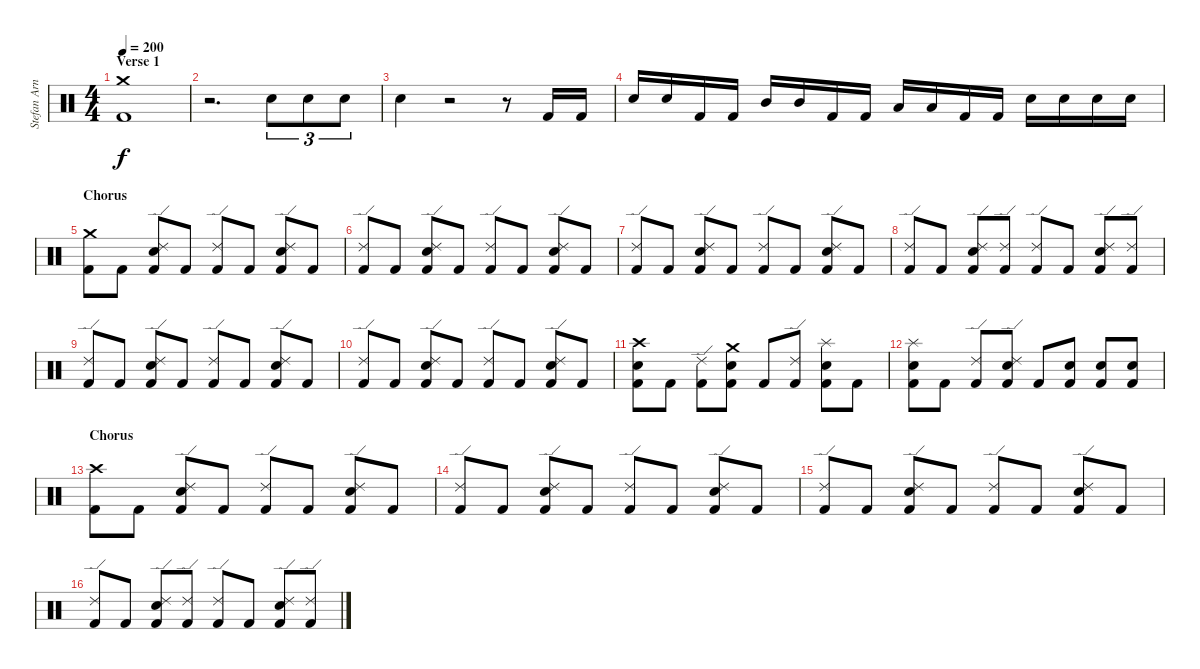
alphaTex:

\track ("Stefan Arnold" "Stefan Arn") {instrument percussion}
\staff {score}
\articulation defaults
\ts (4 4)
\section ("" "Verse 1")
\tempo 200
\clef neutral
\ks c
("Crash medium (hit)" "Kick (hit) 2").1{dy f} |
r.2{d} "Electric Snare (hit)".8{tu (3 2)} "Electric Snare (hit)".8{tu (3 2)} "Electric Snare (hit)".8{tu (3 2)} |
"Electric Snare (hit)".4 r.2 r.8 "Kick (hit) 2".16 "Kick (hit) 2".16 |
"Electric Snare (hit)".16 "Electric Snare (hit)".16 "Kick (hit) 2".16 "Kick (hit) 2".16 "Mid Tom (hit)".16 "Mid Tom (hit)".16 "Kick (hit) 2".16 "Kick (hit) 2".16 "Low Tom (hit)".16 "Low Tom (hit)".16 "Kick (hit) 2".16 "Kick (hit) 2".16 "Electric Snare (hit)".16 "Electric Snare (hit)".16 "Electric Snare (hit)".16 "Electric Snare (hit)".16 |
\section ("" "Chorus")
("Crash medium (hit)" "Kick (hit) 2").8 "Kick (hit) 2".8 ("Ride (edge) 2" "Electric Snare (hit)" "Kick (hit) 2").8 "Kick (hit) 2".8 ("Ride (edge) 2" "Kick (hit) 2").8 "Kick (hit) 2".8 ("Ride (edge) 2" "Electric Snare (hit)" "Kick (hit) 2").8 "Kick (hit) 2".8 |
("Ride (edge) 2" "Kick (hit) 2").8 "Kick (hit) 2".8 ("Ride (edge) 2" "Electric Snare (hit)" "Kick (hit) 2").8 "Kick (hit) 2".8 ("Ride (edge) 2" "Kick (hit) 2").8 "Kick (hit) 2".8 ("Ride (edge) 2" "Electric Snare (hit)" "Kick (hit) 2").8 "Kick (hit) 2".8 |
("Ride (edge) 2" "Kick (hit) 2").8 "Kick (hit) 2".8 ("Ride (edge) 2" "Electric Snare (hit)" "Kick (hit) 2").8 "Kick (hit) 2".8 ("Ride (edge) 2" "Kick (hit) 2").8 "Kick (hit) 2".8 ("Ride (edge) 2" "Electric Snare (hit)" "Kick (hit) 2").8 "Kick (hit) 2".8 |
("Ride (edge) 2" "Kick (hit) 2").8 "Kick (hit) 2".8 ("Ride (edge) 2" "Electric Snare (hit)" "Kick (hit) 2").8 ("Ride (edge) 2" "Kick (hit) 2").8 ("Ride (edge) 2" "Kick (hit) 2").8 "Kick (hit) 2".8 ("Ride (edge) 2" "Electric Snare (hit)" "Kick (hit) 2").8 ("Ride (edge) 2" "Kick (hit) 2").8 |
("Ride (edge) 2" "Kick (hit) 2").8 "Kick (hit) 2".8 ("Ride (edge) 2" "Electric Snare (hit)" "Kick (hit) 2").8 "Kick (hit) 2".8 ("Ride (edge) 2" "Kick (hit) 2").8 "Kick (hit) 2".8 ("Ride (edge) 2" "Electric Snare (hit)" "Kick (hit) 2").8 "Kick (hit) 2".8 |
("Ride (edge) 2" "Kick (hit) 2").8 "Kick (hit) 2".8 ("Ride (edge) 2" "Electric Snare (hit)" "Kick (hit) 2").8 "Kick (hit) 2".8 ("Ride (edge) 2" "Kick (hit) 2").8 "Kick (hit) 2".8 ("Ride (edge) 2" "Electric Snare (hit)" "Kick (hit) 2").8 "Kick (hit) 2".8 |
("Crash high (hit)" "Electric Snare (hit)" "Kick (hit) 2").8 "Kick (hit) 2".8 ("Ride (edge) 2" "Kick (hit) 2").8 ("Crash medium (hit)" "Electric Snare (hit)" "Kick (hit) 2").8 "Kick (hit) 2".8 ("Ride (edge) 2" "Kick (hit) 2").8 ("Splash (hit)" "Electric Snare (hit)" "Kick (hit) 2").8 "Kick (hit) 2".8 |
("Splash (hit)" "Electric Snare (hit)" "Kick (hit) 2").8 "Kick (hit) 2".8 ("Ride (edge) 2" "Kick (hit) 2").8 ("Ride (edge) 2" "Electric Snare (hit)" "Kick (hit) 2").8 "Kick (hit) 2".8 ("Electric Snare (hit)" "Kick (hit) 2").8 ("Electric Snare (hit)" "Kick (hit) 2").8 ("Electric Snare (hit)" "Kick (hit) 2").8 |
\section ("" "Chorus")
("Crash high (hit)" "Kick (hit) 2").8 "Kick (hit) 2".8 ("Ride (edge) 2" "Electric Snare (hit)" "Kick (hit) 2").8 "Kick (hit) 2".8 ("Ride (edge) 2" "Kick (hit) 2").8 "Kick (hit) 2".8 ("Ride (edge) 2" "Electric Snare (hit)" "Kick (hit) 2").8 "Kick (hit) 2".8 |
("Ride (edge) 2" "Kick (hit) 2").8 "Kick (hit) 2".8 ("Ride (edge) 2" "Electric Snare (hit)" "Kick (hit) 2").8 "Kick (hit) 2".8 ("Ride (edge) 2" "Kick (hit) 2").8 "Kick (hit) 2".8 ("Ride (edge) 2" "Electric Snare (hit)" "Kick (hit) 2").8 "Kick (hit) 2".8 |
("Ride (edge) 2" "Kick (hit) 2").8 "Kick (hit) 2".8 ("Ride (edge) 2" "Electric Snare (hit)" "Kick (hit) 2").8 "Kick (hit) 2".8 ("Ride (edge) 2" "Kick (hit) 2").8 "Kick (hit) 2".8 ("Ride (edge) 2" "Electric Snare (hit)" "Kick (hit) 2").8 "Kick (hit) 2".8 |
("Ride (edge) 2" "Kick (hit) 2").8 "Kick (hit) 2".8 ("Ride (edge) 2" "Electric Snare (hit)" "Kick (hit) 2").8 ("Ride (edge) 2" "Kick (hit) 2").8 ("Ride (edge) 2" "Kick (hit) 2").8 "Kick (hit) 2".8 ("Ride (edge) 2" "Electric Snare (hit)" "Kick (hit) 2").8 ("Ride (edge) 2" "Kick (hit) 2").8
